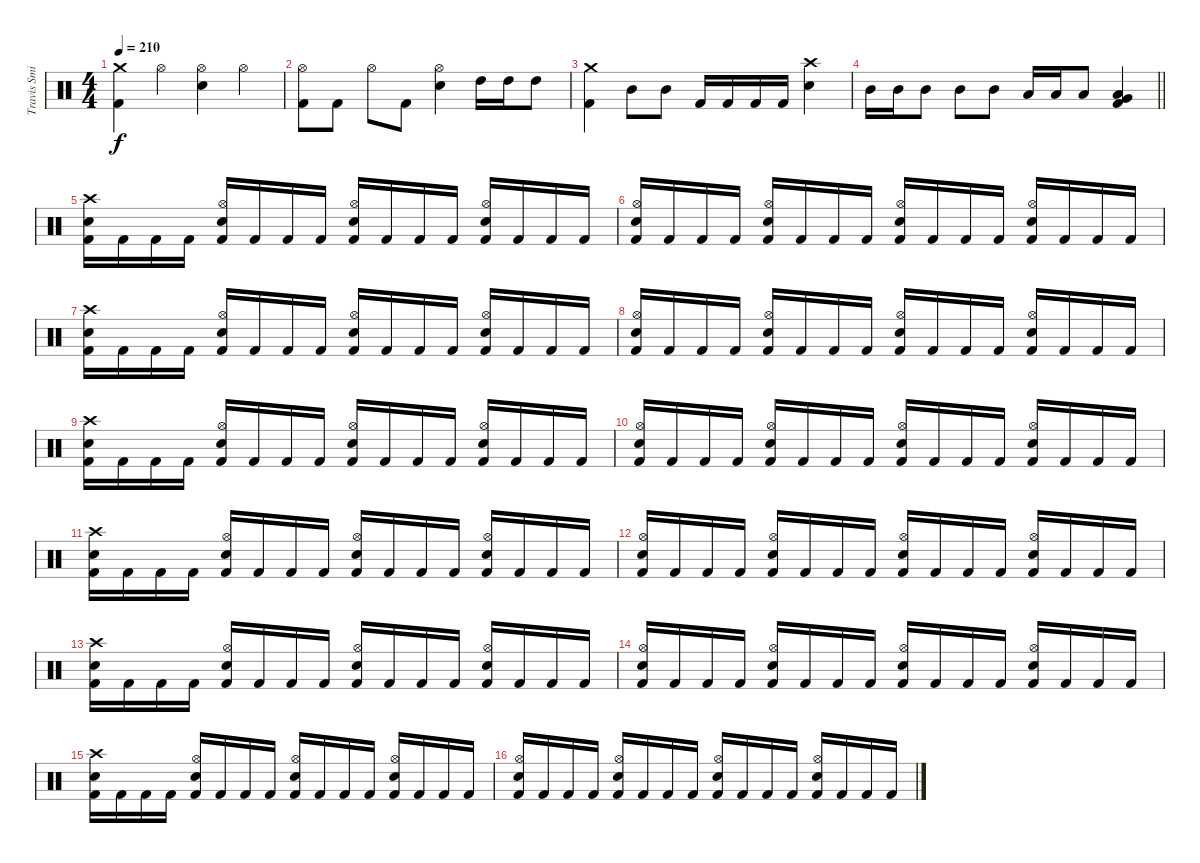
\track ("Travis Smith" "Travis Smi") {instrument percussion}
\staff {score}
\articulation defaults
\ts (4 4)
\tempo 210
\clef neutral
\ks c
("Crash medium (hit)" "Kick (hit) 2").4{dy f} "Hi-Hat (open)".4 ("Hi-Hat (open)" "Electric Snare (hit)").4 "Hi-Hat (open)".4 |
("Hi-Hat (open)" "Kick (hit) 2").8 "Kick (hit) 2".8 "Hi-Hat (open)".8 "Kick (hit) 2".8 ("Hi-Hat (open)" "Electric Snare (hit)").4 "High Tom (hit)".16 "High Tom (hit)".16 "High Tom (hit)".8 |
("Crash medium (hit)" "Kick (hit) 2").4 "Mid Tom (hit)".8 "Mid Tom (hit)".8 "Kick (hit) 2".16 "Kick (hit) 2".16 "Kick (hit) 2".16 "Kick (hit) 2".16 ("Crash high (hit)" "Electric Snare (hit)").4 |
\barLineRight lightlight "Mid Tom (hit)".16 "Mid Tom (hit)".16 "Mid Tom (hit)".8 "Mid Tom (hit)".8 "Mid Tom (hit)".8 "Low Tom (hit)".16 "Low Tom (hit)".16 "Low Tom (hit)".8
("Low Tom (hit)" "Very Low Tom (hit)" "Kick (hit) 2").4 |
("Crash high (hit)" "Electric Snare (hit)" "Kick (hit) 2").16 "Kick (hit) 2".16 "Kick (hit) 2".16 "Kick (hit) 2".16 ("Hi-Hat (open)" "Electric Snare (hit)" "Kick (hit) 2").16 "Kick (hit) 2".16 "Kick (hit) 2".16 "Kick (hit) 2".16 ("Hi-Hat (open)" "Electric Snare (hit)" "Kick (hit) 2").16 "Kick (hit) 2".16 "Kick (hit) 2".16 "Kick (hit) 2".16 ("Hi-Hat (open)" "Electric Snare (hit)" "Kick (hit) 2").16 "Kick (hit) 2".16 "Kick (hit) 2".16 "Kick (hit) 2".16 |
("Hi-Hat (open)" "Electric Snare (hit)" "Kick (hit) 2").16 "Kick (hit) 2".16 "Kick (hit) 2".16 "Kick (hit) 2".16 ("Hi-Hat (open)" "Electric Snare (hit)" "Kick (hit) 2").16 "Kick (hit) 2".16 "Kick (hit) 2".16 "Kick (hit) 2".16 ("Hi-Hat (open)" "Electric Snare (hit)" "Kick (hit) 2").16 "Kick (hit) 2".16 "Kick (hit) 2".16 "Kick (hit) 2".16 ("Hi-Hat (open)" "Electric Snare (hit)" "Kick (hit) 2").16 "Kick (hit) 2".16 "Kick (hit) 2".16 "Kick (hit) 2".16 |
("Crash high (hit)" "Electric Snare (hit)" "Kick (hit) 2").16 "Kick (hit) 2".16 "Kick (hit) 2".16 "Kick (hit) 2".16 ("Hi-Hat (open)" "Electric Snare (hit)" "Kick (hit) 2").16 "Kick (hit) 2".16 "Kick (hit) 2".16 "Kick (hit) 2".16 ("Hi-Hat (open)" "Electric Snare (hit)" "Kick (hit) 2").16 "Kick (hit) 2".16 "Kick (hit) 2".16 "Kick (hit) 2".16 ("Hi-Hat (open)" "Electric Snare (hit)" "Kick (hit) 2").16 "Kick (hit) 2".16 "Kick (hit) 2".16 "Kick (hit) 2".16 |
("Hi-Hat (open)" "Electric Snare (hit)" "Kick (hit) 2").16 "Kick (hit) 2".16 "Kick (hit) 2".16 "Kick (hit) 2".16 ("Hi-Hat (open)" "Electric Snare (hit)" "Kick (hit) 2").16 "Kick (hit) 2".16 "Kick (hit) 2".16 "Kick (hit) 2".16 ("Hi-Hat (open)" "Electric Snare (hit)" "Kick (hit) 2").16 "Kick (hit) 2".16 "Kick (hit) 2".16 "Kick (hit) 2".16 ("Hi-Hat (open)" "Electric Snare (hit)" "Kick (hit) 2").16 "Kick (hit) 2".16 "Kick (hit) 2".16 "Kick (hit) 2".16 |
("Crash high (hit)" "Electric Snare (hit)" "Kick (hit) 2").16 "Kick (hit) 2".16 "Kick (hit) 2".16 "Kick (hit) 2".16 ("Hi-Hat (open)" "Electric Snare (hit)" "Kick (hit) 2").16 "Kick (hit) 2".16 "Kick (hit) 2".16 "Kick (hit) 2".16 ("Hi-Hat (open)" "Electric Snare (hit)" "Kick (hit) 2").16 "Kick (hit) 2".16 "Kick (hit) 2".16 "Kick (hit) 2".16 ("Hi-Hat (open)" "Electric Snare (hit)" "Kick (hit) 2").16 "Kick (hit) 2".16 "Kick (hit) 2".16 "Kick (hit) 2".16 |
("Hi-Hat (open)" "Electric Snare (hit)" "Kick (hit) 2").16 "Kick (hit) 2".16 "Kick (hit) 2".16 "Kick (hit) 2".16 ("Hi-Hat (open)" "Electric Snare (hit)" "Kick (hit) 2").16 "Kick (hit) 2".16 "Kick (hit) 2".16 "Kick (hit) 2".16 ("Hi-Hat (open)" "Electric Snare (hit)" "Kick (hit) 2").16 "Kick (hit) 2".16 "Kick (hit) 2".16 "Kick (hit) 2".16 ("Hi-Hat (open)" "Electric Snare (hit)" "Kick (hit) 2").16 "Kick (hit) 2".16 "Kick (hit) 2".16 "Kick (hit) 2".16 |
("Crash high (hit)" "Electric Snare (hit)" "Kick (hit) 2").16 "Kick (hit) 2".16 "Kick (hit) 2".16 "Kick (hit) 2".16 ("Hi-Hat (open)" "Electric Snare (hit)" "Kick (hit) 2").16 "Kick (hit) 2".16 "Kick (hit) 2".16 "Kick (hit) 2".16 ("Hi-Hat (open)" "Electric Snare (hit)" "Kick (hit) 2").16 "Kick (hit) 2".16 "Kick (hit) 2".16 "Kick (hit) 2".16 ("Hi-Hat (open)" "Electric Snare (hit)" "Kick (hit) 2").16 "Kick (hit) 2".16 "Kick (hit) 2".16 "Kick (hit) 2".16 |
("Hi-Hat (open)" "Electric Snare (hit)" "Kick (hit) 2").16 "Kick (hit) 2".16 "Kick (hit) 2".16 "Kick (hit) 2".16 ("Hi-Hat (open)" "Electric Snare (hit)" "Kick (hit) 2").16 "Kick (hit) 2".16 "Kick (hit) 2".16 "Kick (hit) 2".16 ("Hi-Hat (open)" "Electric Snare (hit)" "Kick (hit) 2").16 "Kick (hit) 2".16 "Kick (hit) 2".16 "Kick (hit) 2".16 ("Hi-Hat (open)" "Electric Snare (hit)" "Kick (hit) 2").16 "Kick (hit) 2".16 "Kick (hit) 2".16 "Kick (hit) 2".16 |
("Crash high (hit)" "Electric Snare (hit)" "Kick (hit) 2").16 "Kick (hit) 2".16 "Kick (hit) 2".16 "Kick (hit) 2".16 ("Hi-Hat (open)" "Electric Snare (hit)" "Kick (hit) 2").16 "Kick (hit) 2".16 "Kick (hit) 2".16 "Kick (hit) 2".16 ("Hi-Hat (open)" "Electric Snare (hit)" "Kick (hit) 2").16 "Kick (hit) 2".16 "Kick (hit) 2".16 "Kick (hit) 2".16 ("Hi-Hat (open)" "Electric Snare (hit)" "Kick (hit) 2").16 "Kick (hit) 2".16 "Kick (hit) 2".16 "Kick (hit) 2".16 |
("Hi-Hat (open)" "Electric Snare (hit)" "Kick (hit) 2").16 "Kick (hit) 2".16 "Kick (hit) 2".16 "Kick (hit) 2".16 ("Hi-Hat (open)" "Electric Snare (hit)" "Kick (hit) 2").16 "Kick (hit) 2".16 "Kick (hit) 2".16 "Kick (hit) 2".16 ("Hi-Hat (open)" "Electric Snare (hit)" "Kick (hit) 2").16 "Kick (hit) 2".16 "Kick (hit) 2".16 "Kick (hit) 2".16 ("Hi-Hat (open)" "Electric Snare (hit)" "Kick (hit) 2").16 "Kick (hit) 2".16 "Kick (hit) 2".16 "Kick (hit) 2".16 |
("Crash high (hit)" "Electric Snare (hit)" "Kick (hit) 2").16 "Kick (hit) 2".16 "Kick (hit) 2".16 "Kick (hit) 2".16 ("Hi-Hat (open)" "Electric Snare (hit)" "Kick (hit) 2").16 "Kick (hit) 2".16 "Kick (hit) 2".16 "Kick (hit) 2".16 ("Hi-Hat (open)" "Electric Snare (hit)" "Kick (hit) 2").16 "Kick (hit) 2".16 "Kick (hit) 2".16 "Kick (hit) 2".16 ("Hi-Hat (open)" "Electric Snare (hit)" "Kick (hit) 2").16 "Kick (hit) 2".16 "Kick (hit) 2".16 "Kick (hit) 2".16 |
("Hi-Hat (open)" "Electric Snare (hit)" "Kick (hit) 2").16 "Kick (hit) 2".16 "Kick (hit) 2".16 "Kick (hit) 2".16 ("Hi-Hat (open)" "Electric Snare (hit)" "Kick (hit) 2").16 "Kick (hit) 2".16 "Kick (hit) 2".16 "Kick (hit) 2".16 ("Hi-Hat (open)" "Electric Snare (hit)" "Kick (hit) 2").16 "Kick (hit) 2".16 "Kick (hit) 2".16 "Kick (hit) 2".16 ("Hi-Hat (open)" "Electric Snare (hit)" "Kick (hit) 2").16 "Kick (hit) 2".16 "Kick (hit) 2".16 "Kick (hit) 2".16
